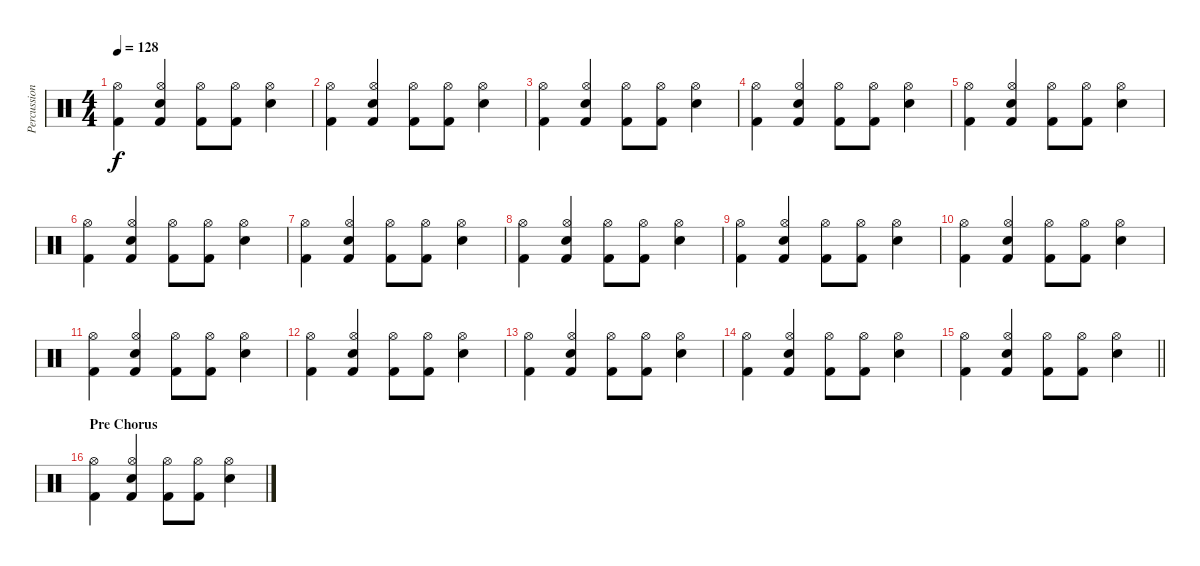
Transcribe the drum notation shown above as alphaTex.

\track ("Percussion" "Percussion") {instrument percussion}
\staff {score}
\articulation defaults
\ts (4 4)
\tempo 128
\clef neutral
\ks c
("Kick (hit) 2" "Hi-Hat (open)").4{dy f} ("Kick (hit) 2" "Snare (hit) 2" "Hi-Hat (open)").4 ("Kick (hit) 2" "Hi-Hat (open)").8 ("Kick (hit) 2" "Hi-Hat (open)").8 ("Snare (hit) 2" "Hi-Hat (open)").4 |
("Kick (hit) 2" "Hi-Hat (open)").4 ("Kick (hit) 2" "Snare (hit) 2" "Hi-Hat (open)").4 ("Kick (hit) 2" "Hi-Hat (open)").8 ("Kick (hit) 2" "Hi-Hat (open)").8 ("Snare (hit) 2" "Hi-Hat (open)").4 |
("Kick (hit) 2" "Hi-Hat (open)").4 ("Kick (hit) 2" "Snare (hit) 2" "Hi-Hat (open)").4 ("Kick (hit) 2" "Hi-Hat (open)").8 ("Kick (hit) 2" "Hi-Hat (open)").8 ("Snare (hit) 2" "Hi-Hat (open)").4 |
("Kick (hit) 2" "Hi-Hat (open)").4 ("Kick (hit) 2" "Snare (hit) 2" "Hi-Hat (open)").4 ("Kick (hit) 2" "Hi-Hat (open)").8 ("Kick (hit) 2" "Hi-Hat (open)").8 ("Snare (hit) 2" "Hi-Hat (open)").4 |
("Kick (hit) 2" "Hi-Hat (open)").4 ("Kick (hit) 2" "Snare (hit) 2" "Hi-Hat (open)").4 ("Kick (hit) 2" "Hi-Hat (open)").8 ("Kick (hit) 2" "Hi-Hat (open)").8 ("Snare (hit) 2" "Hi-Hat (open)").4 |
("Kick (hit) 2" "Hi-Hat (open)").4 ("Kick (hit) 2" "Snare (hit) 2" "Hi-Hat (open)").4 ("Kick (hit) 2" "Hi-Hat (open)").8 ("Kick (hit) 2" "Hi-Hat (open)").8 ("Snare (hit) 2" "Hi-Hat (open)").4 |
("Kick (hit) 2" "Hi-Hat (open)").4 ("Kick (hit) 2" "Snare (hit) 2" "Hi-Hat (open)").4 ("Kick (hit) 2" "Hi-Hat (open)").8 ("Kick (hit) 2" "Hi-Hat (open)").8 ("Snare (hit) 2" "Hi-Hat (open)").4 |
("Kick (hit) 2" "Hi-Hat (open)").4 ("Kick (hit) 2" "Snare (hit) 2" "Hi-Hat (open)").4 ("Kick (hit) 2" "Hi-Hat (open)").8 ("Kick (hit) 2" "Hi-Hat (open)").8 ("Snare (hit) 2" "Hi-Hat (open)").4 |
("Kick (hit) 2" "Hi-Hat (open)").4 ("Kick (hit) 2" "Snare (hit) 2" "Hi-Hat (open)").4 ("Kick (hit) 2" "Hi-Hat (open)").8 ("Kick (hit) 2" "Hi-Hat (open)").8 ("Snare (hit) 2" "Hi-Hat (open)").4 |
("Kick (hit) 2" "Hi-Hat (open)").4 ("Kick (hit) 2" "Snare (hit) 2" "Hi-Hat (open)").4 ("Kick (hit) 2" "Hi-Hat (open)").8 ("Kick (hit) 2" "Hi-Hat (open)").8 ("Snare (hit) 2" "Hi-Hat (open)").4 |
("Kick (hit) 2" "Hi-Hat (open)").4 ("Kick (hit) 2" "Snare (hit) 2" "Hi-Hat (open)").4 ("Kick (hit) 2" "Hi-Hat (open)").8 ("Kick (hit) 2" "Hi-Hat (open)").8 ("Snare (hit) 2" "Hi-Hat (open)").4 |
("Kick (hit) 2" "Hi-Hat (open)").4 ("Kick (hit) 2" "Snare (hit) 2" "Hi-Hat (open)").4 ("Kick (hit) 2" "Hi-Hat (open)").8 ("Kick (hit) 2" "Hi-Hat (open)").8 ("Snare (hit) 2" "Hi-Hat (open)").4 |
("Kick (hit) 2" "Hi-Hat (open)").4 ("Kick (hit) 2" "Snare (hit) 2" "Hi-Hat (open)").4 ("Kick (hit) 2" "Hi-Hat (open)").8 ("Kick (hit) 2" "Hi-Hat (open)").8 ("Snare (hit) 2" "Hi-Hat (open)").4 |
("Kick (hit) 2" "Hi-Hat (open)").4 ("Kick (hit) 2" "Snare (hit) 2" "Hi-Hat (open)").4 ("Kick (hit) 2" "Hi-Hat (open)").8 ("Kick (hit) 2" "Hi-Hat (open)").8 ("Snare (hit) 2" "Hi-Hat (open)").4 |
\barLineRight lightlight
("Kick (hit) 2" "Hi-Hat (open)").4 ("Kick (hit) 2" "Snare (hit) 2" "Hi-Hat (open)").4 ("Kick (hit) 2" "Hi-Hat (open)").8 ("Kick (hit) 2" "Hi-Hat (open)").8 ("Snare (hit) 2" "Hi-Hat (open)").4 |
\section ("" "Pre Chorus")
("Kick (hit) 2" "Hi-Hat (open)").4 ("Kick (hit) 2" "Snare (hit) 2" "Hi-Hat (open)").4 ("Kick (hit) 2" "Hi-Hat (open)").8 ("Kick (hit) 2" "Hi-Hat (open)").8 ("Snare (hit) 2" "Hi-Hat (open)").4
